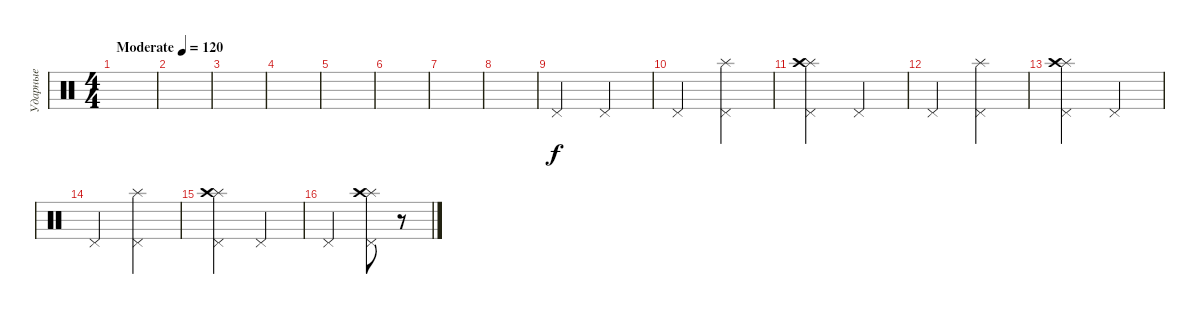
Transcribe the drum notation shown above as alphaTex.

\track ("Ударные" "Ударные") {instrument percussion}
\staff {score}
\articulation defaults
\ts (4 4)
\tempo (120 "Moderate")
\clef neutral
\ks c
|
|
|
|
|
|
|
|
"Pedal Hi-Hat (hit)".2 "Pedal Hi-Hat (hit)".2 |
"Pedal Hi-Hat (hit)".2 ("Pedal Hi-Hat (hit)" "Splash (hit)").2 |
("Pedal Hi-Hat (hit)" "Splash (hit)" "Crash high (hit)").2 "Pedal Hi-Hat (hit)".2 |
"Pedal Hi-Hat (hit)".2 ("Pedal Hi-Hat (hit)" "Splash (hit)").2 |
("Pedal Hi-Hat (hit)" "Splash (hit)" "Crash high (hit)").2 "Pedal Hi-Hat (hit)".2 |
"Pedal Hi-Hat (hit)".2 ("Pedal Hi-Hat (hit)" "Splash (hit)").2 |
("Pedal Hi-Hat (hit)" "Splash (hit)" "Crash high (hit)").2 "Pedal Hi-Hat (hit)".2 |
"Pedal Hi-Hat (hit)".2 ("Pedal Hi-Hat (hit)" "Splash (hit)" "Crash high (hit)").8 r.8
